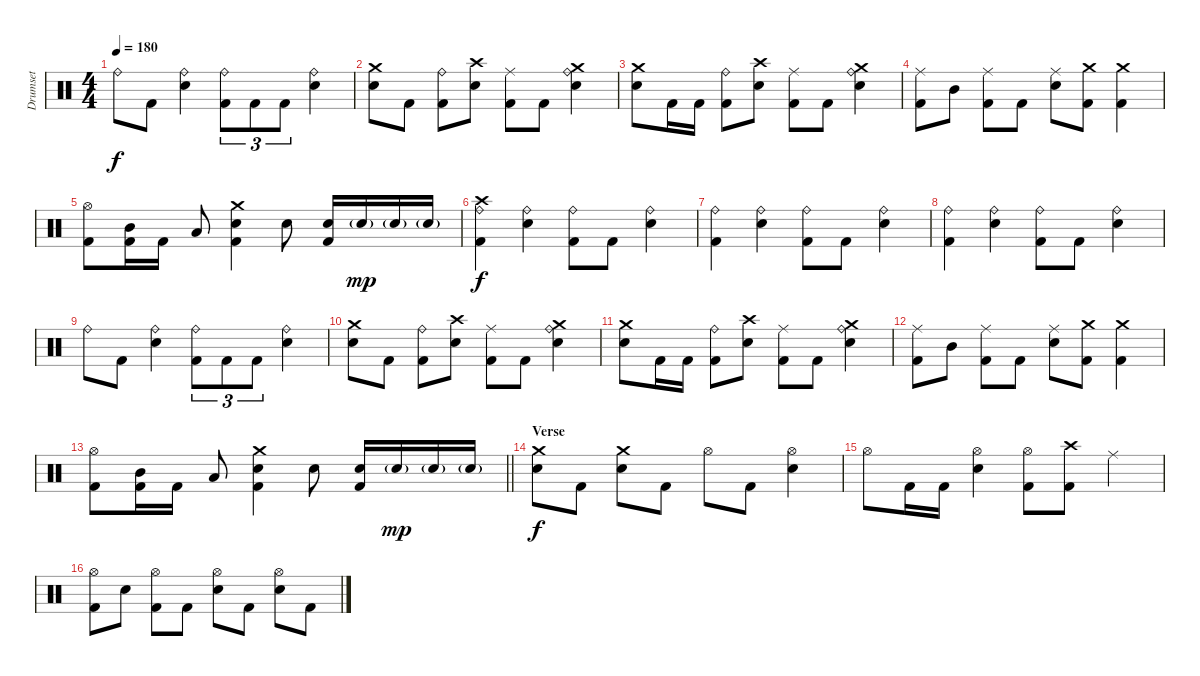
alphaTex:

\track ("Drumset" "Drumset") {instrument percussion}
\staff {score}
\articulation defaults
\ts (4 4)
\tempo 180
\clef neutral
\ks c "Ride (bell)".8{dy f} "Kick (hit) 2".8
("Ride (bell)" "Snare (hit) 2").4 ("Ride (bell)" "Kick (hit) 2").8{tu (3 2)} "Kick (hit) 2".8{tu (3 2)} "Kick (hit) 2".8{tu (3 2)} ("Ride (bell)" "Snare (hit) 2").4 |
("Crash medium (hit)" "Snare (hit) 2").8 "Kick (hit) 2".8 ("Ride (bell)" "Kick (hit) 2").8 ("Crash high (hit)" "Snare (hit) 2").8 ("Ride (middle)" "Kick (hit) 2").8 "Kick (hit) 2".8 ("Ride (bell)" "Crash medium (hit)" "Snare (hit) 2").4 |
("Crash medium (hit)" "Snare (hit) 2").8 "Kick (hit) 2".16 "Kick (hit) 2".16 ("Ride (bell)" "Kick (hit) 2").8 ("Crash high (hit)" "Snare (hit) 2").8 ("Ride (middle)" "Kick (hit) 2").8 "Kick (hit) 2".8 ("Ride (bell)" "Crash medium (hit)" "Snare (hit) 2").4 |
("Ride (middle)" "Kick (hit) 2").8 "Mid Tom (hit)".8 ("Ride (middle)" "Kick (hit) 2").8 "Kick (hit) 2".8 ("Ride (middle)" "Snare (hit) 2").8 ("Crash medium (hit)" "Kick (hit) 2").8 ("Crash medium (hit)" "Kick (hit) 2").4 |
("Hi-Hat (open)" "Kick (hit) 2").8 ("Mid Tom (hit)" "Kick (hit) 2").16 "Kick (hit) 2".16 "Low Tom (hit)".8 ("Crash medium (hit)" "Snare (hit) 2" "Kick (hit) 2").4 "Snare (hit) 2".8 ("Snare (hit) 2" "Kick (hit) 2").16 "Snare (hit) 2"{g}.16{dy mp} "Snare (hit) 2"{g}.16 "Snare (hit) 2"{g}.16 |
("Ride (bell)" "Crash high (hit)" "Kick (hit) 2").4{dy f} ("Ride (bell)" "Snare (hit) 2").4 ("Ride (bell)" "Kick (hit) 2").8 "Kick (hit) 2".8 ("Ride (bell)" "Snare (hit) 2").4 |
("Ride (bell)" "Kick (hit) 2").4 ("Ride (bell)" "Snare (hit) 2").4 ("Ride (bell)" "Kick (hit) 2").8 "Kick (hit) 2".8 ("Ride (bell)" "Snare (hit) 2").4 |
("Ride (bell)" "Kick (hit) 2").4 ("Ride (bell)" "Snare (hit) 2").4 ("Ride (bell)" "Kick (hit) 2").8 "Kick (hit) 2".8 ("Ride (bell)" "Snare (hit) 2").4 |
"Ride (bell)".8 "Kick (hit) 2".8 ("Ride (bell)" "Snare (hit) 2").4 ("Ride (bell)" "Kick (hit) 2").8{tu (3 2)} "Kick (hit) 2".8{tu (3 2)} "Kick (hit) 2".8{tu (3 2)} ("Ride (bell)" "Snare (hit) 2").4 |
("Crash medium (hit)" "Snare (hit) 2").8 "Kick (hit) 2".8 ("Ride (bell)" "Kick (hit) 2").8 ("Crash high (hit)" "Snare (hit) 2").8 ("Ride (middle)" "Kick (hit) 2").8 "Kick (hit) 2".8 ("Ride (bell)" "Crash medium (hit)" "Snare (hit) 2").4 |
("Crash medium (hit)" "Snare (hit) 2").8 "Kick (hit) 2".16 "Kick (hit) 2".16 ("Ride (bell)" "Kick (hit) 2").8 ("Crash high (hit)" "Snare (hit) 2").8 ("Ride (middle)" "Kick (hit) 2").8 "Kick (hit) 2".8 ("Ride (bell)" "Crash medium (hit)" "Snare (hit) 2").4 |
("Ride (middle)" "Kick (hit) 2").8 "Mid Tom (hit)".8 ("Ride (middle)" "Kick (hit) 2").8 "Kick (hit) 2".8 ("Ride (middle)" "Snare (hit) 2").8 ("Crash medium (hit)" "Kick (hit) 2").8 ("Crash medium (hit)" "Kick (hit) 2").4 |
\barLineRight lightlight
("Hi-Hat (open)" "Kick (hit) 2").8 ("Mid Tom (hit)" "Kick (hit) 2").16 "Kick (hit) 2".16 "Low Tom (hit)".8 ("Crash medium (hit)" "Snare (hit) 2" "Kick (hit) 2").4 "Snare (hit) 2".8 ("Snare (hit) 2" "Kick (hit) 2").16 "Snare (hit) 2"{g}.16{dy mp} "Snare (hit) 2"{g}.16 "Snare (hit) 2"{g}.16 |
\section ("" "Verse")
("Crash medium (hit)" "Snare (hit) 2").8{dy f} "Kick (hit) 2".8 ("Crash medium (hit)" "Snare (hit) 2").8 "Kick (hit) 2".8 "Hi-Hat (open)".8 "Kick (hit) 2".8 ("Hi-Hat (open)" "Snare (hit) 2").4 |
"Hi-Hat (open)".8 "Kick (hit) 2".16 "Kick (hit) 2".16 ("Hi-Hat (open)" "Snare (hit) 2").4 ("Hi-Hat (open)" "Kick (hit) 2").8 ("Crash high (hit)" "Kick (hit) 2").8 "Ride (middle)".4 |
("Hi-Hat (open)" "Kick (hit) 2").8 "Snare (hit) 2".8 ("Hi-Hat (open)" "Kick (hit) 2").8 "Kick (hit) 2".8 ("Hi-Hat (open)" "Snare (hit) 2").8 "Kick (hit) 2".8 ("Hi-Hat (open)" "Snare (hit) 2").8 "Kick (hit) 2".8
